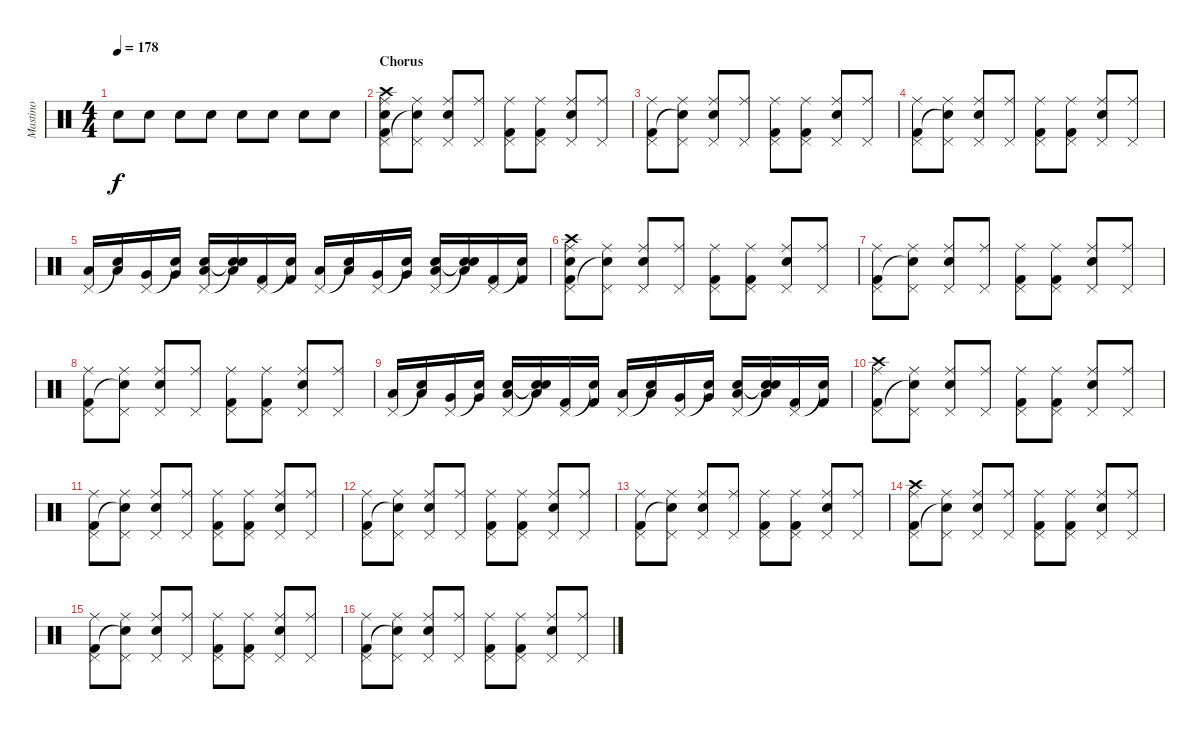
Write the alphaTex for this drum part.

\track ("Mastino" "Mastino") {instrument percussion}
\staff {score}
\articulation defaults
\ts (4 4)
\tempo 178
\clef neutral
\ks c "Electric Snare (hit)".8{dy f} "Electric Snare (hit)".8 "Electric Snare (hit)".8 "Electric Snare (hit)".8 "Electric Snare (hit)".8 "Electric Snare (hit)".8 "Electric Snare (hit)".8 "Electric Snare (hit)".8
|
\section ("" "Chorus")
("Crash high (hit)" "Ride (middle)" "Pedal Hi-Hat (hit)" "Snare (hit)" "Kick (hit) 2").8 ("Ride (middle)" "Pedal Hi-Hat (hit)" "Snare (hit)"{t}).8 ("Ride (middle)" "Pedal Hi-Hat (hit)" "Electric Snare (hit)").8 ("Ride (middle)" "Pedal Hi-Hat (hit)").8 ("Ride (middle)" "Pedal Hi-Hat (hit)" "Kick (hit) 2").8 ("Ride (middle)" "Pedal Hi-Hat (hit)" "Kick (hit) 2").8 ("Ride (middle)" "Pedal Hi-Hat (hit)" "Electric Snare (hit)").8 ("Ride (middle)" "Pedal Hi-Hat (hit)").8 |
("Ride (middle)" "Pedal Hi-Hat (hit)" "Kick (hit) 2").8 ("Ride (middle)" "Pedal Hi-Hat (hit)" "Snare (hit)"{t}).8 ("Ride (middle)" "Pedal Hi-Hat (hit)" "Electric Snare (hit)").8 ("Ride (middle)" "Pedal Hi-Hat (hit)").8 ("Ride (middle)" "Pedal Hi-Hat (hit)" "Kick (hit) 2").8 ("Ride (middle)" "Pedal Hi-Hat (hit)" "Kick (hit) 2").8 ("Ride (middle)" "Pedal Hi-Hat (hit)" "Electric Snare (hit)").8 ("Ride (middle)" "Pedal Hi-Hat (hit)").8 |
("Ride (middle)" "Pedal Hi-Hat (hit)" "Kick (hit) 2").8 ("Ride (middle)" "Pedal Hi-Hat (hit)" "Snare (hit)"{t}).8 ("Ride (middle)" "Pedal Hi-Hat (hit)" "Electric Snare (hit)").8 ("Ride (middle)" "Pedal Hi-Hat (hit)").8 ("Ride (middle)" "Pedal Hi-Hat (hit)" "Kick (hit) 2").8 ("Ride (middle)" "Pedal Hi-Hat (hit)" "Kick (hit) 2").8 ("Ride (middle)" "Pedal Hi-Hat (hit)" "Electric Snare (hit)").8 ("Ride (middle)" "Pedal Hi-Hat (hit)").8 |
("Pedal Hi-Hat (hit)" "Low Tom (hit)").16 ("Snare (hit)"{t} "Low Tom (hit)").16 ("Pedal Hi-Hat (hit)" "Very Low Tom (hit)").16 ("Snare (hit)"{t} "Very Low Tom (hit)").16 ("Pedal Hi-Hat (hit)" "Electric Snare (hit)" "Low Floor Tom (hit)").16 ("Snare (hit)"{t} "Electric Snare (hit)"{t} "Low Floor Tom (hit)").16 ("Pedal Hi-Hat (hit)" "Kick (hit) 2").16 ("Snare (hit)"{t} "Kick (hit) 2").16 ("Pedal Hi-Hat (hit)" "Low Tom (hit)").16 ("Snare (hit)"{t} "Low Tom (hit)").16 ("Pedal Hi-Hat (hit)" "Very Low Tom (hit)").16 ("Snare (hit)"{t} "Very Low Tom (hit)").16 ("Pedal Hi-Hat (hit)" "Electric Snare (hit)" "Low Floor Tom (hit)").16 ("Snare (hit)"{t} "Electric Snare (hit)"{t} "Low Floor Tom (hit)").16 ("Pedal Hi-Hat (hit)" "Kick (hit) 2").16 ("Snare (hit)"{t} "Kick (hit) 2").16 |
("Crash high (hit)" "Ride (middle)" "Pedal Hi-Hat (hit)" "Snare (hit)" "Kick (hit) 2").8 ("Ride (middle)" "Pedal Hi-Hat (hit)" "Snare (hit)"{t}).8 ("Ride (middle)" "Pedal Hi-Hat (hit)" "Electric Snare (hit)").8 ("Ride (middle)" "Pedal Hi-Hat (hit)").8 ("Ride (middle)" "Pedal Hi-Hat (hit)" "Kick (hit) 2").8 ("Ride (middle)" "Pedal Hi-Hat (hit)" "Kick (hit) 2").8 ("Ride (middle)" "Pedal Hi-Hat (hit)" "Electric Snare (hit)").8 ("Ride (middle)" "Pedal Hi-Hat (hit)").8 |
("Ride (middle)" "Pedal Hi-Hat (hit)" "Kick (hit) 2").8 ("Ride (middle)" "Pedal Hi-Hat (hit)" "Snare (hit)"{t}).8 ("Ride (middle)" "Pedal Hi-Hat (hit)" "Electric Snare (hit)").8 ("Ride (middle)" "Pedal Hi-Hat (hit)").8 ("Ride (middle)" "Pedal Hi-Hat (hit)" "Kick (hit) 2").8 ("Ride (middle)" "Pedal Hi-Hat (hit)" "Kick (hit) 2").8 ("Ride (middle)" "Pedal Hi-Hat (hit)" "Electric Snare (hit)").8 ("Ride (middle)" "Pedal Hi-Hat (hit)").8 |
("Ride (middle)" "Pedal Hi-Hat (hit)" "Kick (hit) 2").8 ("Ride (middle)" "Pedal Hi-Hat (hit)" "Snare (hit)"{t}).8 ("Ride (middle)" "Pedal Hi-Hat (hit)" "Electric Snare (hit)").8 ("Ride (middle)" "Pedal Hi-Hat (hit)").8 ("Ride (middle)" "Pedal Hi-Hat (hit)" "Kick (hit) 2").8 ("Ride (middle)" "Pedal Hi-Hat (hit)" "Kick (hit) 2").8 ("Ride (middle)" "Pedal Hi-Hat (hit)" "Electric Snare (hit)").8 ("Ride (middle)" "Pedal Hi-Hat (hit)").8 |
("Pedal Hi-Hat (hit)" "Low Tom (hit)").16 ("Snare (hit)"{t} "Low Tom (hit)").16 ("Pedal Hi-Hat (hit)" "Very Low Tom (hit)").16 ("Snare (hit)"{t} "Very Low Tom (hit)").16 ("Pedal Hi-Hat (hit)" "Electric Snare (hit)" "Low Floor Tom (hit)").16 ("Snare (hit)"{t} "Electric Snare (hit)"{t} "Low Floor Tom (hit)").16 ("Pedal Hi-Hat (hit)" "Kick (hit) 2").16 ("Snare (hit)"{t} "Kick (hit) 2").16 ("Pedal Hi-Hat (hit)" "Low Tom (hit)").16 ("Snare (hit)"{t} "Low Tom (hit)").16 ("Pedal Hi-Hat (hit)" "Very Low Tom (hit)").16 ("Snare (hit)"{t} "Very Low Tom (hit)").16 ("Pedal Hi-Hat (hit)" "Electric Snare (hit)" "Low Floor Tom (hit)").16 ("Snare (hit)"{t} "Electric Snare (hit)"{t} "Low Floor Tom (hit)").16 ("Pedal Hi-Hat (hit)" "Kick (hit) 2").16 ("Snare (hit)"{t} "Kick (hit) 2").16 |
("Crash high (hit)" "Ride (middle)" "Pedal Hi-Hat (hit)" "Kick (hit) 2").8 ("Ride (middle)" "Pedal Hi-Hat (hit)" "Snare (hit)"{t}).8 ("Ride (middle)" "Pedal Hi-Hat (hit)" "Electric Snare (hit)").8 ("Ride (middle)" "Pedal Hi-Hat (hit)").8 ("Ride (middle)" "Pedal Hi-Hat (hit)" "Kick (hit) 2").8 ("Ride (middle)" "Pedal Hi-Hat (hit)" "Kick (hit) 2").8 ("Ride (middle)" "Pedal Hi-Hat (hit)" "Electric Snare (hit)").8 ("Ride (middle)" "Pedal Hi-Hat (hit)").8 |
("Ride (middle)" "Pedal Hi-Hat (hit)" "Kick (hit) 2").8 ("Ride (middle)" "Pedal Hi-Hat (hit)" "Snare (hit)"{t}).8 ("Ride (middle)" "Pedal Hi-Hat (hit)" "Electric Snare (hit)").8 ("Ride (middle)" "Pedal Hi-Hat (hit)").8 ("Ride (middle)" "Pedal Hi-Hat (hit)" "Kick (hit) 2").8 ("Ride (middle)" "Pedal Hi-Hat (hit)" "Kick (hit) 2").8 ("Ride (middle)" "Pedal Hi-Hat (hit)" "Electric Snare (hit)").8 ("Ride (middle)" "Pedal Hi-Hat (hit)").8 |
("Ride (middle)" "Pedal Hi-Hat (hit)" "Kick (hit) 2").8 ("Ride (middle)" "Pedal Hi-Hat (hit)" "Snare (hit)"{t}).8 ("Ride (middle)" "Pedal Hi-Hat (hit)" "Electric Snare (hit)").8 ("Ride (middle)" "Pedal Hi-Hat (hit)").8 ("Ride (middle)" "Pedal Hi-Hat (hit)" "Kick (hit) 2").8 ("Ride (middle)" "Pedal Hi-Hat (hit)" "Kick (hit) 2").8 ("Ride (middle)" "Pedal Hi-Hat (hit)" "Electric Snare (hit)").8 ("Ride (middle)" "Pedal Hi-Hat (hit)").8 |
("Ride (middle)" "Pedal Hi-Hat (hit)" "Kick (hit) 2").8 ("Ride (middle)" "Pedal Hi-Hat (hit)" "Snare (hit)"{t}).8 ("Ride (middle)" "Pedal Hi-Hat (hit)" "Electric Snare (hit)").8 ("Ride (middle)" "Pedal Hi-Hat (hit)").8 ("Ride (middle)" "Pedal Hi-Hat (hit)" "Kick (hit) 2").8 ("Ride (middle)" "Pedal Hi-Hat (hit)" "Kick (hit) 2").8 ("Ride (middle)" "Pedal Hi-Hat (hit)" "Electric Snare (hit)").8 ("Ride (middle)" "Pedal Hi-Hat (hit)").8 |
("Crash high (hit)" "Ride (middle)" "Pedal Hi-Hat (hit)" "Kick (hit) 2").8 ("Ride (middle)" "Pedal Hi-Hat (hit)" "Snare (hit)"{t}).8 ("Ride (middle)" "Pedal Hi-Hat (hit)" "Electric Snare (hit)").8 ("Ride (middle)" "Pedal Hi-Hat (hit)").8 ("Ride (middle)" "Pedal Hi-Hat (hit)" "Kick (hit) 2").8 ("Ride (middle)" "Pedal Hi-Hat (hit)" "Kick (hit) 2").8 ("Ride (middle)" "Pedal Hi-Hat (hit)" "Electric Snare (hit)").8 ("Ride (middle)" "Pedal Hi-Hat (hit)").8 |
("Ride (middle)" "Pedal Hi-Hat (hit)" "Kick (hit) 2").8 ("Ride (middle)" "Pedal Hi-Hat (hit)" "Snare (hit)"{t}).8 ("Ride (middle)" "Pedal Hi-Hat (hit)" "Electric Snare (hit)").8 ("Ride (middle)" "Pedal Hi-Hat (hit)").8 ("Ride (middle)" "Pedal Hi-Hat (hit)" "Kick (hit) 2").8 ("Ride (middle)" "Pedal Hi-Hat (hit)" "Kick (hit) 2").8 ("Ride (middle)" "Pedal Hi-Hat (hit)" "Electric Snare (hit)").8 ("Ride (middle)" "Pedal Hi-Hat (hit)").8 |
("Ride (middle)" "Pedal Hi-Hat (hit)" "Kick (hit) 2").8 ("Ride (middle)" "Pedal Hi-Hat (hit)" "Snare (hit)"{t}).8 ("Ride (middle)" "Pedal Hi-Hat (hit)" "Electric Snare (hit)").8 ("Ride (middle)" "Pedal Hi-Hat (hit)").8 ("Ride (middle)" "Pedal Hi-Hat (hit)" "Kick (hit) 2").8 ("Ride (middle)" "Pedal Hi-Hat (hit)" "Kick (hit) 2").8 ("Ride (middle)" "Pedal Hi-Hat (hit)" "Electric Snare (hit)").8 ("Ride (middle)" "Pedal Hi-Hat (hit)").8
